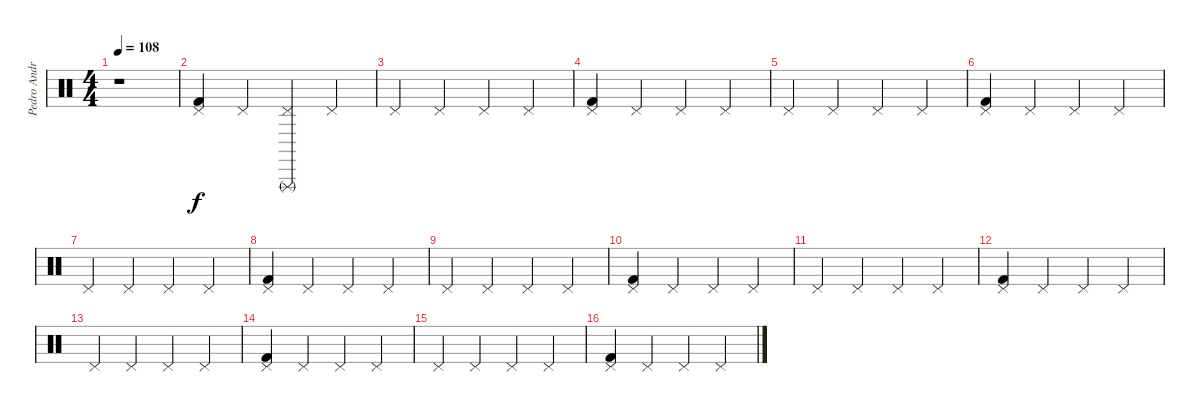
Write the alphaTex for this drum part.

\track ("Pedro Andreu" "Pedro Andr") {instrument percussion}
\staff {score}
\articulation defaults
\ts (4 4)
\tempo 108
\clef neutral
\ks c
r.1{dy f} |
("Kick (hit) 2" "Pedal Hi-Hat (hit)").4 "Pedal Hi-Hat (hit)".4 ("Pedal Hi-Hat (hit)" "Triangle (rnute)").4 "Pedal Hi-Hat (hit)".4 |
"Pedal Hi-Hat (hit)".4 "Pedal Hi-Hat (hit)".4 "Pedal Hi-Hat (hit)".4 "Pedal Hi-Hat (hit)".4 |
("Kick (hit) 2" "Pedal Hi-Hat (hit)").4 "Pedal Hi-Hat (hit)".4 "Pedal Hi-Hat (hit)".4 "Pedal Hi-Hat (hit)".4 |
"Pedal Hi-Hat (hit)".4 "Pedal Hi-Hat (hit)".4 "Pedal Hi-Hat (hit)".4 "Pedal Hi-Hat (hit)".4 |
("Kick (hit) 2" "Pedal Hi-Hat (hit)").4 "Pedal Hi-Hat (hit)".4 "Pedal Hi-Hat (hit)".4 "Pedal Hi-Hat (hit)".4 |
"Pedal Hi-Hat (hit)".4 "Pedal Hi-Hat (hit)".4 "Pedal Hi-Hat (hit)".4 "Pedal Hi-Hat (hit)".4 |
("Kick (hit) 2" "Pedal Hi-Hat (hit)").4 "Pedal Hi-Hat (hit)".4 "Pedal Hi-Hat (hit)".4 "Pedal Hi-Hat (hit)".4 |
"Pedal Hi-Hat (hit)".4 "Pedal Hi-Hat (hit)".4 "Pedal Hi-Hat (hit)".4 "Pedal Hi-Hat (hit)".4 |
("Kick (hit) 2" "Pedal Hi-Hat (hit)").4 "Pedal Hi-Hat (hit)".4 "Pedal Hi-Hat (hit)".4 "Pedal Hi-Hat (hit)".4 |
"Pedal Hi-Hat (hit)".4 "Pedal Hi-Hat (hit)".4 "Pedal Hi-Hat (hit)".4 "Pedal Hi-Hat (hit)".4 |
("Kick (hit) 2" "Pedal Hi-Hat (hit)").4 "Pedal Hi-Hat (hit)".4 "Pedal Hi-Hat (hit)".4 "Pedal Hi-Hat (hit)".4 |
"Pedal Hi-Hat (hit)".4 "Pedal Hi-Hat (hit)".4 "Pedal Hi-Hat (hit)".4 "Pedal Hi-Hat (hit)".4 |
("Kick (hit) 2" "Pedal Hi-Hat (hit)").4 "Pedal Hi-Hat (hit)".4 "Pedal Hi-Hat (hit)".4 "Pedal Hi-Hat (hit)".4 |
"Pedal Hi-Hat (hit)".4 "Pedal Hi-Hat (hit)".4 "Pedal Hi-Hat (hit)".4 "Pedal Hi-Hat (hit)".4 |
("Kick (hit) 2" "Pedal Hi-Hat (hit)").4 "Pedal Hi-Hat (hit)".4 "Pedal Hi-Hat (hit)".4 "Pedal Hi-Hat (hit)".4
